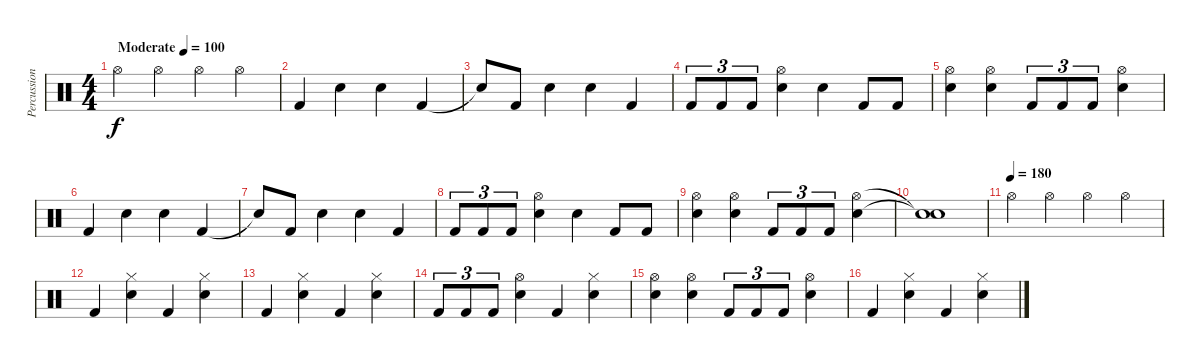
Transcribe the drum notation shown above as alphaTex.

\track ("Percussioni" "Percussion") {instrument percussion}
\staff {score}
\articulation defaults
\ts (4 4)
\tempo (100 "Moderate")
\clef neutral
\ks c "Hi-Hat (open)".4{dy f} "Hi-Hat (open)".4 "Hi-Hat (open)".4 "Hi-Hat (open)".4
|
"Kick (hit) 2".4 "Snare (hit) 2".4 "Snare (hit) 2".4 "Kick (hit) 2".4 |
"Snare (hit)"{t}.8 "Kick (hit) 2".8 "Snare (hit) 2".4 "Snare (hit) 2".4 "Kick (hit) 2".4 |
"Kick (hit) 2".8{tu (3 2)} "Kick (hit) 2".8{tu (3 2)} "Kick (hit) 2".8{tu (3 2)} ("Hi-Hat (open)" "Snare (hit) 2").4 "Snare (hit) 2".4 "Kick (hit) 2".8 "Kick (hit) 2".8 |
("Hi-Hat (open)" "Snare (hit) 2").4 ("Hi-Hat (open)" "Snare (hit) 2").4 "Kick (hit) 2".8{tu (3 2)} "Kick (hit) 2".8{tu (3 2)} "Kick (hit) 2".8{tu (3 2)} ("Hi-Hat (open)" "Snare (hit) 2").4 |
"Kick (hit) 2".4 "Snare (hit) 2".4 "Snare (hit) 2".4 "Kick (hit) 2".4 |
"Snare (hit)"{t}.8 "Kick (hit) 2".8 "Snare (hit) 2".4 "Snare (hit) 2".4 "Kick (hit) 2".4 |
"Kick (hit) 2".8{tu (3 2)} "Kick (hit) 2".8{tu (3 2)} "Kick (hit) 2".8{tu (3 2)} ("Hi-Hat (open)" "Snare (hit) 2").4 "Snare (hit) 2".4 "Kick (hit) 2".8 "Kick (hit) 2".8 |
("Hi-Hat (open)" "Snare (hit) 2").4 ("Hi-Hat (open)" "Snare (hit) 2").4 "Kick (hit) 2".8{tu (3 2)} "Kick (hit) 2".8{tu (3 2)} "Kick (hit) 2".8{tu (3 2)} ("Hi-Hat (open)" "Snare (hit) 2").4 |
("Snare (hit)"{t} "Snare (hit)"{t}).1 |
\tempo (180)
"Hi-Hat (open)".4 "Hi-Hat (open)".4 "Hi-Hat (open)".4 "Hi-Hat (open)".4 |
"Kick (hit) 2".4 ("Hi-Hat (closed)" "Snare (hit) 2").4 "Kick (hit) 2".4 ("Hi-Hat (closed)" "Snare (hit) 2").4 |
"Kick (hit) 2".4 ("Hi-Hat (closed)" "Snare (hit) 2").4 "Kick (hit) 2".4 ("Hi-Hat (closed)" "Snare (hit) 2").4 |
"Kick (hit) 2".8{tu (3 2)} "Kick (hit) 2".8{tu (3 2)} "Kick (hit) 2".8{tu (3 2)} ("Hi-Hat (open)" "Snare (hit) 2").4 "Kick (hit) 2".4 ("Hi-Hat (closed)" "Snare (hit) 2").4 |
("Hi-Hat (open)" "Snare (hit) 2").4 ("Hi-Hat (open)" "Snare (hit) 2").4 "Kick (hit) 2".8{tu (3 2)} "Kick (hit) 2".8{tu (3 2)} "Kick (hit) 2".8{tu (3 2)} ("Hi-Hat (open)" "Snare (hit) 2").4 |
"Kick (hit) 2".4 ("Hi-Hat (closed)" "Snare (hit) 2").4 "Kick (hit) 2".4 ("Hi-Hat (closed)" "Snare (hit) 2").4
